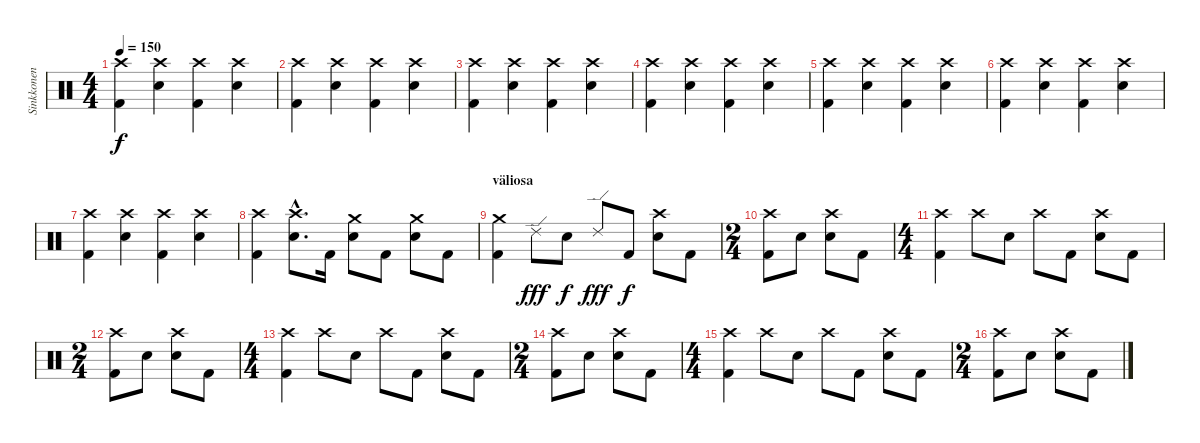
\track ("Sinkkonen" "Sinkkonen") {instrument percussion}
\staff {score}
\articulation defaults
\ts (4 4)
\tempo 150
\clef neutral
\ks c
("Kick (hit) 2" "Crash high (hit)").4{dy f} ("Crash high (hit)" "Snare (hit) 2").4 ("Kick (hit) 2" "Crash high (hit)").4 ("Crash high (hit)" "Snare (hit) 2").4 |
("Kick (hit) 2" "Crash high (hit)").4 ("Crash high (hit)" "Snare (hit) 2").4 ("Kick (hit) 2" "Crash high (hit)").4 ("Crash high (hit)" "Snare (hit) 2").4 |
("Kick (hit) 2" "Crash high (hit)").4 ("Crash high (hit)" "Snare (hit) 2").4 ("Kick (hit) 2" "Crash high (hit)").4 ("Crash high (hit)" "Snare (hit) 2").4 |
("Kick (hit) 2" "Crash high (hit)").4 ("Crash high (hit)" "Snare (hit) 2").4 ("Kick (hit) 2" "Crash high (hit)").4 ("Crash high (hit)" "Snare (hit) 2").4 |
("Kick (hit) 2" "Crash high (hit)").4 ("Crash high (hit)" "Snare (hit) 2").4 ("Kick (hit) 2" "Crash high (hit)").4 ("Crash high (hit)" "Snare (hit) 2").4 |
("Kick (hit) 2" "Crash high (hit)").4 ("Crash high (hit)" "Snare (hit) 2").4 ("Kick (hit) 2" "Crash high (hit)").4 ("Crash high (hit)" "Snare (hit) 2").4 |
("Kick (hit) 2" "Crash high (hit)").4 ("Crash high (hit)" "Snare (hit) 2").4 ("Kick (hit) 2" "Crash high (hit)").4 ("Crash high (hit)" "Snare (hit) 2").4 |
("Kick (hit) 2" "Crash high (hit)").4 ("Crash high (hit)"{hac} "Snare (hit) 2"{hac}).8{d} "Kick (hit) 2".16 ("Crash medium (hit)" "Snare (hit) 2").8 "Kick (hit) 2".8 ("Crash medium (hit)" "Snare (hit) 2").8 "Kick (hit) 2".8 |
\section ("" "väliosa")
("Kick (hit) 2" "Crash medium (hit)").4 "Ride (edge) 2".8{dy fff} "Snare (hit) 2".8{dy f} "Ride (edge) 2".8{dy fff} "Kick (hit) 2".8{dy f} ("Crash high (hit)" "Snare (hit) 2").8 "Kick (hit) 2".8 |
\ts (2 4)
("Kick (hit) 2" "Crash high (hit)").8 "Snare (hit) 2".8 ("Crash high (hit)" "Snare (hit) 2").8 "Kick (hit) 2".8 |
\ts (4 4)
("Kick (hit) 2" "Crash high (hit)").4 "Crash high (hit)".8 "Snare (hit) 2".8 "Crash high (hit)".8 "Kick (hit) 2".8 ("Crash high (hit)" "Snare (hit) 2").8 "Kick (hit) 2".8 |
\ts (2 4)
("Kick (hit) 2" "Crash high (hit)").8 "Snare (hit) 2".8 ("Crash high (hit)" "Snare (hit) 2").8 "Kick (hit) 2".8 |
\ts (4 4)
("Kick (hit) 2" "Crash high (hit)").4 "Crash high (hit)".8 "Snare (hit) 2".8 "Crash high (hit)".8 "Kick (hit) 2".8 ("Crash high (hit)" "Snare (hit) 2").8 "Kick (hit) 2".8 |
\ts (2 4)
("Kick (hit) 2" "Crash high (hit)").8 "Snare (hit) 2".8 ("Crash high (hit)" "Snare (hit) 2").8 "Kick (hit) 2".8 |
\ts (4 4)
("Kick (hit) 2" "Crash high (hit)").4 "Crash high (hit)".8 "Snare (hit) 2".8 "Crash high (hit)".8 "Kick (hit) 2".8 ("Crash high (hit)" "Snare (hit) 2").8 "Kick (hit) 2".8 |
\ts (2 4)
("Kick (hit) 2" "Crash high (hit)").8 "Snare (hit) 2".8 ("Crash high (hit)" "Snare (hit) 2").8 "Kick (hit) 2".8
